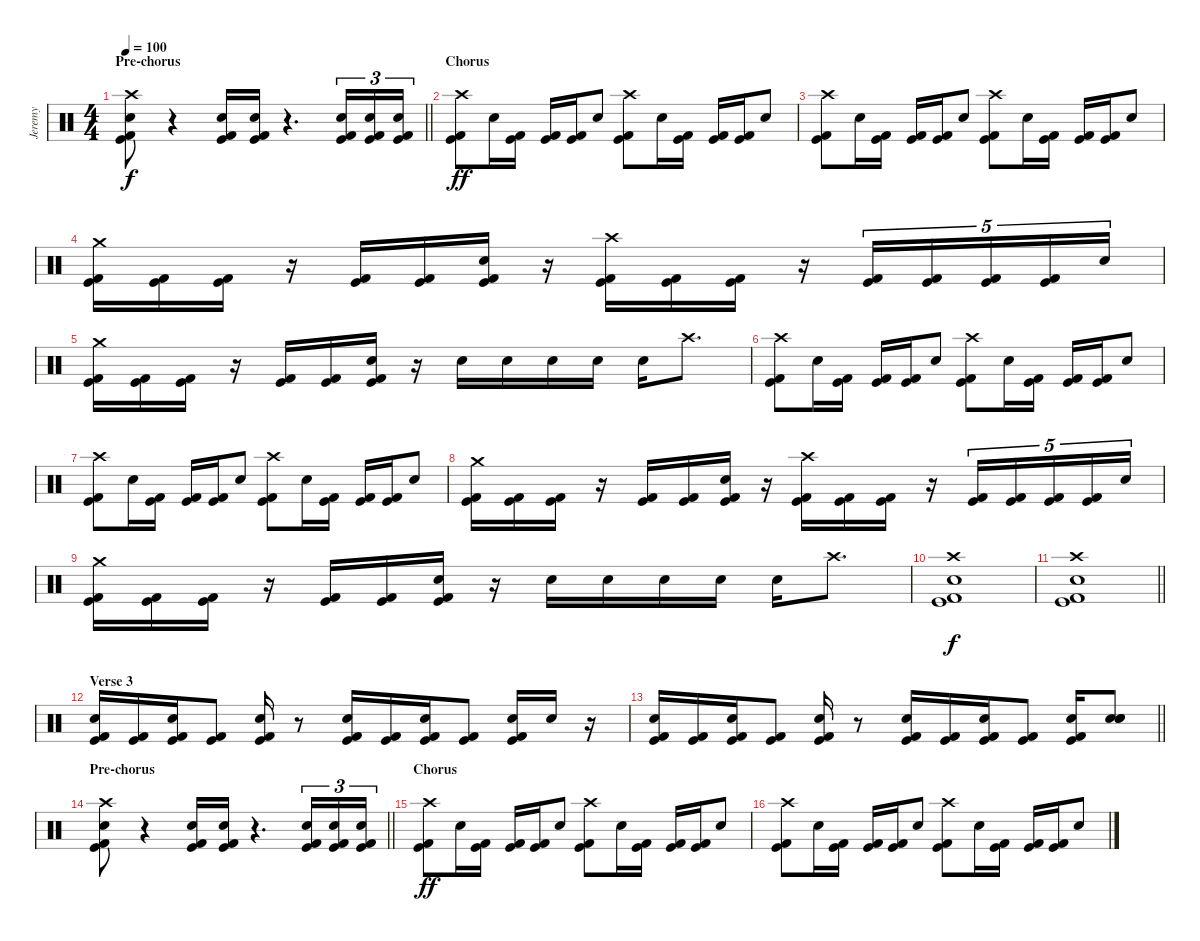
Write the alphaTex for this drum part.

\track ("Jeremy" "Jeremy") {instrument percussion}
\staff {score}
\articulation defaults
\ts (4 4)
\section ("" "Pre-chorus")
\tempo 100
\clef neutral
\barLineRight lightlight
\ks c
("Crash high (hit)" "Electric Snare (hit)" "Kick (hit) 2" "Kick (hit)").8{dy f} r.4 ("Electric Snare (hit)" "Kick (hit) 2" "Kick (hit)").16 ("Electric Snare (hit)" "Kick (hit) 2" "Kick (hit)").16 r.4{d} ("Electric Snare (hit)" "Kick (hit)" "Kick (hit) 2").16{tu (3 2)} ("Electric Snare (hit)" "Kick (hit)" "Kick (hit) 2").16{tu (3 2)} ("Electric Snare (hit)" "Kick (hit)" "Kick (hit) 2").16{tu (3 2)} |
\section ("" "Chorus")
("Crash high (hit)" "Kick (hit) 2" "Kick (hit)").8{dy ff} "Electric Snare (hit)".16 ("Kick (hit) 2" "Kick (hit)").16 ("Kick (hit) 2" "Kick (hit)").16 ("Kick (hit) 2" "Kick (hit)").16 "Electric Snare (hit)".8 ("Crash high (hit)" "Kick (hit) 2" "Kick (hit)").8 "Electric Snare (hit)".16 ("Kick (hit) 2" "Kick (hit)").16 ("Kick (hit) 2" "Kick (hit)").16 ("Kick (hit) 2" "Kick (hit)").16 "Electric Snare (hit)".8 |
("Crash high (hit)" "Kick (hit) 2" "Kick (hit)").8 "Electric Snare (hit)".16 ("Kick (hit) 2" "Kick (hit)").16 ("Kick (hit) 2" "Kick (hit)").16 ("Kick (hit) 2" "Kick (hit)").16 "Electric Snare (hit)".8 ("Crash high (hit)" "Kick (hit) 2" "Kick (hit)").8 "Electric Snare (hit)".16 ("Kick (hit) 2" "Kick (hit)").16 ("Kick (hit) 2" "Kick (hit)").16 ("Kick (hit) 2" "Kick (hit)").16 "Electric Snare (hit)".8 |
("Crash medium (hit)" "Kick (hit) 2" "Kick (hit)").16 ("Kick (hit) 2" "Kick (hit)").16 ("Kick (hit) 2" "Kick (hit)").16 r.16 ("Kick (hit) 2" "Kick (hit)").16 ("Kick (hit) 2" "Kick (hit)").16 ("Electric Snare (hit)" "Kick (hit) 2" "Kick (hit)").16 r.16 ("Crash high (hit)" "Kick (hit) 2" "Kick (hit)").16 ("Kick (hit) 2" "Kick (hit)").16 ("Kick (hit) 2" "Kick (hit)").16 r.16 ("Kick (hit)" "Kick (hit) 2").16{tu (5 4)} ("Kick (hit)" "Kick (hit) 2").16{tu (5 4)} ("Kick (hit)" "Kick (hit) 2").16{tu (5 4)} ("Kick (hit)" "Kick (hit) 2").16{tu (5 4)} "Electric Snare (hit)".16{tu (5 4)} |
("Crash medium (hit)" "Kick (hit) 2" "Kick (hit)").16 ("Kick (hit) 2" "Kick (hit)").16 ("Kick (hit) 2" "Kick (hit)").16 r.16 ("Kick (hit) 2" "Kick (hit)").16 ("Kick (hit) 2" "Kick (hit)").16 ("Electric Snare (hit)" "Kick (hit) 2" "Kick (hit)").16 r.16 "Electric Snare (hit)".16 "Electric Snare (hit)".16 "Electric Snare (hit)".16 "Electric Snare (hit)".16 "Electric Snare (hit)".16 "Crash high (hit)".8{d} |
("Crash high (hit)" "Kick (hit) 2" "Kick (hit)").8 "Electric Snare (hit)".16 ("Kick (hit) 2" "Kick (hit)").16 ("Kick (hit) 2" "Kick (hit)").16 ("Kick (hit) 2" "Kick (hit)").16 "Electric Snare (hit)".8 ("Crash high (hit)" "Kick (hit) 2" "Kick (hit)").8 "Electric Snare (hit)".16 ("Kick (hit) 2" "Kick (hit)").16 ("Kick (hit) 2" "Kick (hit)").16 ("Kick (hit) 2" "Kick (hit)").16 "Electric Snare (hit)".8 |
("Crash high (hit)" "Kick (hit) 2" "Kick (hit)").8 "Electric Snare (hit)".16 ("Kick (hit) 2" "Kick (hit)").16 ("Kick (hit) 2" "Kick (hit)").16 ("Kick (hit) 2" "Kick (hit)").16 "Electric Snare (hit)".8 ("Crash high (hit)" "Kick (hit) 2" "Kick (hit)").8 "Electric Snare (hit)".16 ("Kick (hit) 2" "Kick (hit)").16 ("Kick (hit) 2" "Kick (hit)").16 ("Kick (hit) 2" "Kick (hit)").16 "Electric Snare (hit)".8 |
("Crash medium (hit)" "Kick (hit) 2" "Kick (hit)").16 ("Kick (hit) 2" "Kick (hit)").16 ("Kick (hit) 2" "Kick (hit)").16 r.16 ("Kick (hit) 2" "Kick (hit)").16 ("Kick (hit) 2" "Kick (hit)").16 ("Electric Snare (hit)" "Kick (hit) 2" "Kick (hit)").16 r.16 ("Crash high (hit)" "Kick (hit) 2" "Kick (hit)").16 ("Kick (hit) 2" "Kick (hit)").16 ("Kick (hit) 2" "Kick (hit)").16 r.16 ("Kick (hit)" "Kick (hit) 2").16{tu (5 4)} ("Kick (hit)" "Kick (hit) 2").16{tu (5 4)} ("Kick (hit)" "Kick (hit) 2").16{tu (5 4)} ("Kick (hit)" "Kick (hit) 2").16{tu (5 4)} "Electric Snare (hit)".16{tu (5 4)} |
("Crash medium (hit)" "Kick (hit) 2" "Kick (hit)").16 ("Kick (hit) 2" "Kick (hit)").16 ("Kick (hit) 2" "Kick (hit)").16 r.16 ("Kick (hit) 2" "Kick (hit)").16 ("Kick (hit) 2" "Kick (hit)").16 ("Electric Snare (hit)" "Kick (hit) 2" "Kick (hit)").16 r.16 "Electric Snare (hit)".16 "Electric Snare (hit)".16 "Electric Snare (hit)".16 "Electric Snare (hit)".16 "Electric Snare (hit)".16 "Crash high (hit)".8{d} |
("Crash high (hit)" "Electric Snare (hit)" "Kick (hit) 2" "Kick (hit)").1{dy f} |
\barLineRight lightlight
("Crash high (hit)" "Electric Snare (hit)" "Kick (hit)" "Kick (hit) 2").1 |
\section ("" "Verse 3")
("Electric Snare (hit)" "Kick (hit) 2" "Kick (hit)").16 ("Kick (hit)" "Kick (hit) 2").16 ("Electric Snare (hit)" "Kick (hit) 2" "Kick (hit)").16 ("Kick (hit) 2" "Kick (hit)").8 ("Electric Snare (hit)" "Kick (hit) 2" "Kick (hit)").16 r.8 ("Electric Snare (hit)" "Kick (hit) 2" "Kick (hit)").16 ("Kick (hit)" "Kick (hit) 2").16 ("Electric Snare (hit)" "Kick (hit) 2" "Kick (hit)").16 ("Kick (hit) 2" "Kick (hit)").8 ("Electric Snare (hit)" "Kick (hit) 2" "Kick (hit)").16 "Electric Snare (hit)".16 r.16 |
\barLineRight lightlight
("Electric Snare (hit)" "Kick (hit) 2" "Kick (hit)").16 ("Kick (hit)" "Kick (hit) 2").16 ("Electric Snare (hit)" "Kick (hit) 2" "Kick (hit)").16 ("Kick (hit) 2" "Kick (hit)").8 ("Electric Snare (hit)" "Kick (hit) 2" "Kick (hit)").16 r.8 ("Electric Snare (hit)" "Kick (hit) 2" "Kick (hit)").16 ("Kick (hit)" "Kick (hit) 2").16 ("Electric Snare (hit)" "Kick (hit) 2" "Kick (hit)").16 ("Kick (hit) 2" "Kick (hit)").8 ("Electric Snare (hit)" "Kick (hit) 2" "Kick (hit)").16 ("Electric Snare (hit)" "Electric Snare (hit)" "Electric Snare (hit)").8 |
\section ("" "Pre-chorus")
\barLineRight lightlight
("Crash high (hit)" "Electric Snare (hit)" "Kick (hit) 2" "Kick (hit)").8 r.4 ("Electric Snare (hit)" "Kick (hit) 2" "Kick (hit)").16 ("Electric Snare (hit)" "Kick (hit) 2" "Kick (hit)").16 r.4{d} ("Electric Snare (hit)" "Kick (hit)" "Kick (hit) 2").16{tu (3 2)} ("Electric Snare (hit)" "Kick (hit)" "Kick (hit) 2").16{tu (3 2)} ("Electric Snare (hit)" "Kick (hit)" "Kick (hit) 2").16{tu (3 2)} |
\section ("" "Chorus")
("Crash high (hit)" "Kick (hit) 2" "Kick (hit)").8{dy ff} "Electric Snare (hit)".16 ("Kick (hit) 2" "Kick (hit)").16 ("Kick (hit) 2" "Kick (hit)").16 ("Kick (hit) 2" "Kick (hit)").16 "Electric Snare (hit)".8 ("Crash high (hit)" "Kick (hit) 2" "Kick (hit)").8 "Electric Snare (hit)".16 ("Kick (hit) 2" "Kick (hit)").16 ("Kick (hit) 2" "Kick (hit)").16 ("Kick (hit) 2" "Kick (hit)").16 "Electric Snare (hit)".8 |
("Crash high (hit)" "Kick (hit) 2" "Kick (hit)").8 "Electric Snare (hit)".16 ("Kick (hit) 2" "Kick (hit)").16 ("Kick (hit) 2" "Kick (hit)").16 ("Kick (hit) 2" "Kick (hit)").16 "Electric Snare (hit)".8 ("Crash high (hit)" "Kick (hit) 2" "Kick (hit)").8 "Electric Snare (hit)".16 ("Kick (hit) 2" "Kick (hit)").16 ("Kick (hit) 2" "Kick (hit)").16 ("Kick (hit) 2" "Kick (hit)").16 "Electric Snare (hit)".8
